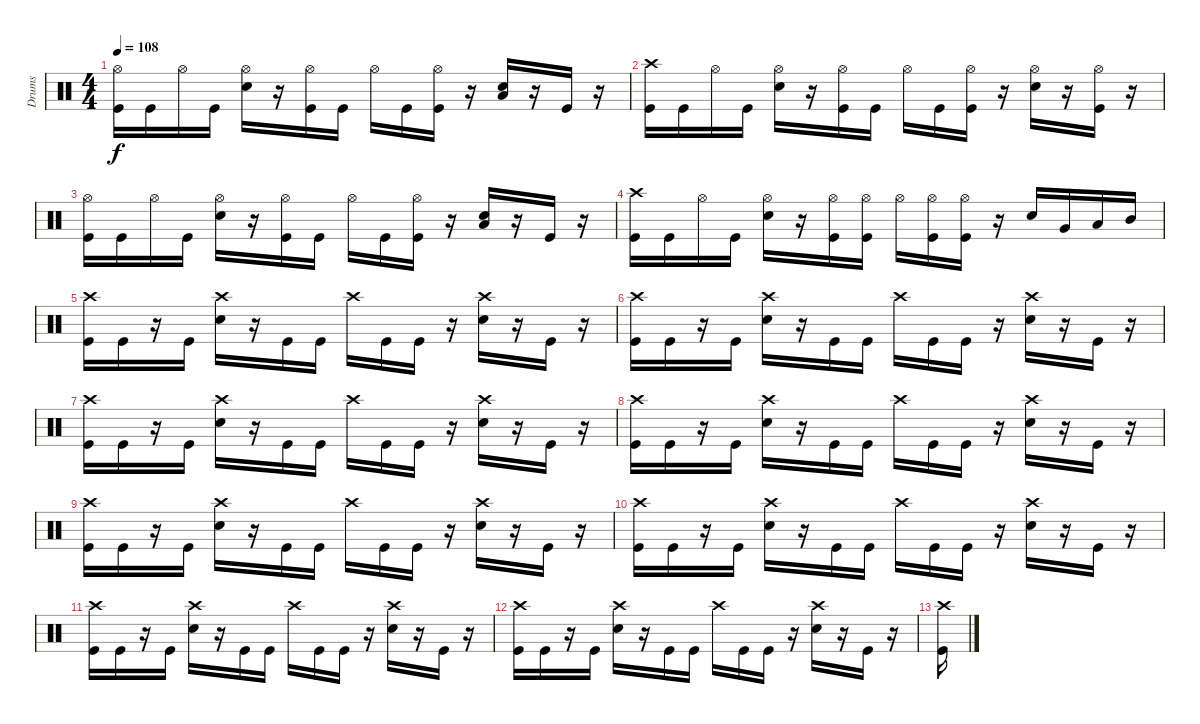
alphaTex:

\track ("Drums" "Drums") {instrument percussion}
\staff {score}
\articulation defaults
\ts (4 4)
\tempo 108
\clef neutral
\ks c
("Hi-Hat (open)" "Kick (hit)").16{dy f} "Kick (hit)".16 "Hi-Hat (open)".16 "Kick (hit)".16 ("Hi-Hat (open)" "Electric Snare (hit)").16 r.16 ("Hi-Hat (open)" "Kick (hit)").16 "Kick (hit)".16 "Hi-Hat (open)".16 "Kick (hit)".16 ("Hi-Hat (open)" "Kick (hit)").16 r.16 ("Low Floor Tom (hit)" "Electric Snare (hit)").16 r.16 "Kick (hit)".16 r.16 |
("Crash high (hit)" "Kick (hit)").16 "Kick (hit)".16 "Hi-Hat (open)".16 "Kick (hit)".16 ("Hi-Hat (open)" "Electric Snare (hit)").16 r.16 ("Hi-Hat (open)" "Kick (hit)").16 "Kick (hit)".16 "Hi-Hat (open)".16 "Kick (hit)".16 ("Hi-Hat (open)" "Kick (hit)").16 r.16 ("Hi-Hat (open)" "Electric Snare (hit)").16 r.16 ("Hi-Hat (open)" "Kick (hit)").16 r.16 |
("Hi-Hat (open)" "Kick (hit)").16 "Kick (hit)".16 "Hi-Hat (open)".16 "Kick (hit)".16 ("Hi-Hat (open)" "Electric Snare (hit)").16 r.16 ("Hi-Hat (open)" "Kick (hit)").16 "Kick (hit)".16 "Hi-Hat (open)".16 "Kick (hit)".16 ("Hi-Hat (open)" "Kick (hit)").16 r.16 ("Low Floor Tom (hit)" "Electric Snare (hit)").16 r.16 "Kick (hit)".16 r.16 |
("Crash high (hit)" "Kick (hit)").16 "Kick (hit)".16 "Hi-Hat (open)".16 "Kick (hit)".16 ("Hi-Hat (open)" "Electric Snare (hit)").16 r.16 ("Hi-Hat (open)" "Kick (hit)").16 ("Hi-Hat (open)" "Kick (hit)").16 "Hi-Hat (open)".16 ("Hi-Hat (open)" "Kick (hit)").16 ("Hi-Hat (open)" "Kick (hit)").16 r.16 "Electric Snare (hit)".16 "Very Low Tom (hit)".16 "Low Tom (hit)".16 "Mid Tom (hit)".16 |
("Crash high (hit)" "Kick (hit)").16 "Kick (hit)".16 r.16 "Kick (hit)".16 ("Crash high (hit)" "Electric Snare (hit)").16 r.16 "Kick (hit)".16 "Kick (hit)".16 "Crash high (hit)".16 "Kick (hit)".16 "Kick (hit)".16 r.16 ("Crash high (hit)" "Electric Snare (hit)").16 r.16 "Kick (hit)".16 r.16 |
("Crash high (hit)" "Kick (hit)").16 "Kick (hit)".16 r.16 "Kick (hit)".16 ("Crash high (hit)" "Electric Snare (hit)").16 r.16 "Kick (hit)".16 "Kick (hit)".16 "Crash high (hit)".16 "Kick (hit)".16 "Kick (hit)".16 r.16 ("Crash high (hit)" "Electric Snare (hit)").16 r.16 "Kick (hit)".16 r.16 |
("Crash high (hit)" "Kick (hit)").16 "Kick (hit)".16 r.16 "Kick (hit)".16 ("Crash high (hit)" "Electric Snare (hit)").16 r.16 "Kick (hit)".16 "Kick (hit)".16 "Crash high (hit)".16 "Kick (hit)".16 "Kick (hit)".16 r.16 ("Crash high (hit)" "Electric Snare (hit)").16 r.16 "Kick (hit)".16 r.16 |
("Crash high (hit)" "Kick (hit)").16 "Kick (hit)".16 r.16 "Kick (hit)".16 ("Crash high (hit)" "Electric Snare (hit)").16 r.16 "Kick (hit)".16 "Kick (hit)".16 "Crash high (hit)".16 "Kick (hit)".16 "Kick (hit)".16 r.16 ("Crash high (hit)" "Electric Snare (hit)").16 r.16 "Kick (hit)".16 r.16 |
("Crash high (hit)" "Kick (hit)").16 "Kick (hit)".16 r.16 "Kick (hit)".16 ("Crash high (hit)" "Electric Snare (hit)").16 r.16 "Kick (hit)".16 "Kick (hit)".16 "Crash high (hit)".16 "Kick (hit)".16 "Kick (hit)".16 r.16 ("Crash high (hit)" "Electric Snare (hit)").16 r.16 "Kick (hit)".16 r.16 |
("Crash high (hit)" "Kick (hit)").16 "Kick (hit)".16 r.16 "Kick (hit)".16 ("Crash high (hit)" "Electric Snare (hit)").16 r.16 "Kick (hit)".16 "Kick (hit)".16 "Crash high (hit)".16 "Kick (hit)".16 "Kick (hit)".16 r.16 ("Crash high (hit)" "Electric Snare (hit)").16 r.16 "Kick (hit)".16 r.16 |
("Crash high (hit)" "Kick (hit)").16 "Kick (hit)".16 r.16 "Kick (hit)".16 ("Crash high (hit)" "Electric Snare (hit)").16 r.16 "Kick (hit)".16 "Kick (hit)".16 "Crash high (hit)".16 "Kick (hit)".16 "Kick (hit)".16 r.16 ("Crash high (hit)" "Electric Snare (hit)").16 r.16 "Kick (hit)".16 r.16 |
("Crash high (hit)" "Kick (hit)").16 "Kick (hit)".16 r.16 "Kick (hit)".16 ("Crash high (hit)" "Electric Snare (hit)").16 r.16 "Kick (hit)".16 "Kick (hit)".16 "Crash high (hit)".16 "Kick (hit)".16 "Kick (hit)".16 r.16 ("Crash high (hit)" "Electric Snare (hit)").16 r.16 "Kick (hit)".16 r.16 |
("Crash high (hit)" "Kick (hit)").16
